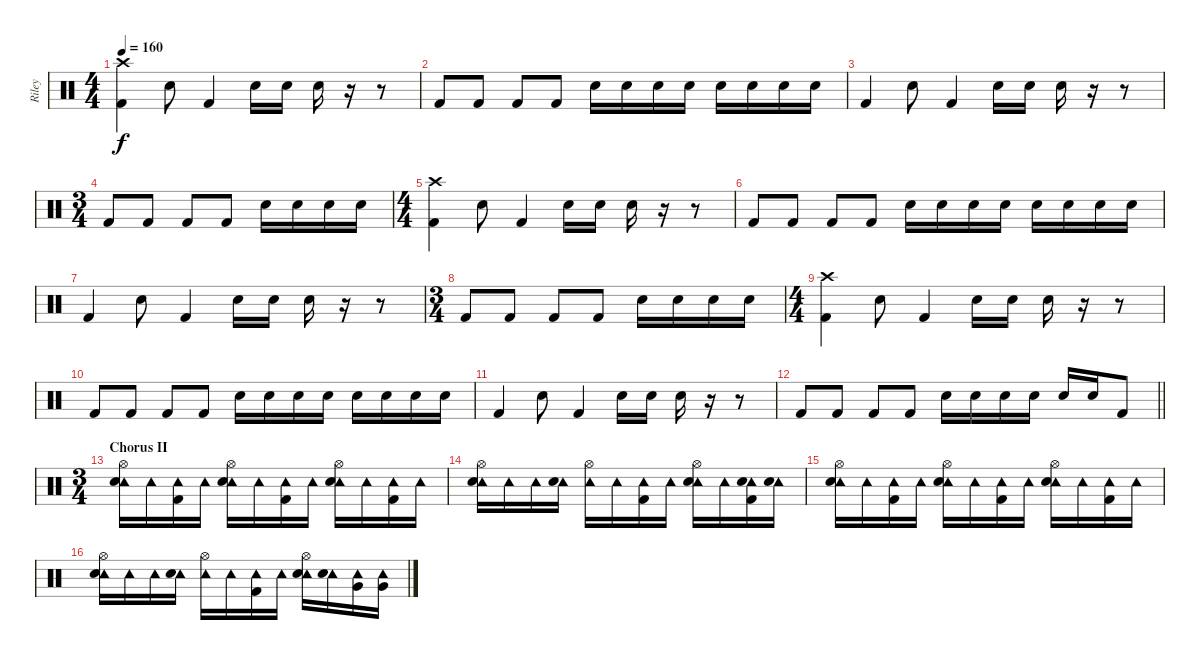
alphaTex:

\track ("Riley" "Riley") {instrument percussion}
\staff {score}
\articulation defaults
\ts (4 4)
\tempo 160
\clef neutral
\ks c
("Crash high (hit)" "Kick (hit) 2").4{dy f} "Electric Snare (hit)".8 "Kick (hit) 2".4 "Electric Snare (hit)".16 "Electric Snare (hit)".16 "Electric Snare (hit)".16 r.16 r.8 |
"Kick (hit) 2".8 "Kick (hit) 2".8 "Kick (hit) 2".8 "Kick (hit) 2".8 "Electric Snare (hit)".16 "Electric Snare (hit)".16 "Electric Snare (hit)".16 "Electric Snare (hit)".16 "Electric Snare (hit)".16 "Electric Snare (hit)".16 "Electric Snare (hit)".16 "Electric Snare (hit)".16 |
"Kick (hit) 2".4 "Electric Snare (hit)".8 "Kick (hit) 2".4 "Electric Snare (hit)".16 "Electric Snare (hit)".16 "Electric Snare (hit)".16 r.16 r.8 |
\ts (3 4)
"Kick (hit) 2".8 "Kick (hit) 2".8 "Kick (hit) 2".8 "Kick (hit) 2".8 "Electric Snare (hit)".16 "Electric Snare (hit)".16 "Electric Snare (hit)".16 "Electric Snare (hit)".16 |
\ts (4 4)
("Crash high (hit)" "Kick (hit) 2").4 "Electric Snare (hit)".8 "Kick (hit) 2".4 "Electric Snare (hit)".16 "Electric Snare (hit)".16 "Electric Snare (hit)".16 r.16 r.8 |
"Kick (hit) 2".8 "Kick (hit) 2".8 "Kick (hit) 2".8 "Kick (hit) 2".8 "Electric Snare (hit)".16 "Electric Snare (hit)".16 "Electric Snare (hit)".16 "Electric Snare (hit)".16 "Electric Snare (hit)".16 "Electric Snare (hit)".16 "Electric Snare (hit)".16 "Electric Snare (hit)".16 |
"Kick (hit) 2".4 "Electric Snare (hit)".8 "Kick (hit) 2".4 "Electric Snare (hit)".16 "Electric Snare (hit)".16 "Electric Snare (hit)".16 r.16 r.8 |
\ts (3 4)
"Kick (hit) 2".8 "Kick (hit) 2".8 "Kick (hit) 2".8 "Kick (hit) 2".8 "Electric Snare (hit)".16 "Electric Snare (hit)".16 "Electric Snare (hit)".16 "Electric Snare (hit)".16 |
\ts (4 4)
("Crash high (hit)" "Kick (hit) 2").4 "Electric Snare (hit)".8 "Kick (hit) 2".4 "Electric Snare (hit)".16 "Electric Snare (hit)".16 "Electric Snare (hit)".16 r.16 r.8 |
"Kick (hit) 2".8 "Kick (hit) 2".8 "Kick (hit) 2".8 "Kick (hit) 2".8 "Electric Snare (hit)".16 "Electric Snare (hit)".16 "Electric Snare (hit)".16 "Electric Snare (hit)".16 "Electric Snare (hit)".16 "Electric Snare (hit)".16 "Electric Snare (hit)".16 "Electric Snare (hit)".16 |
"Kick (hit) 2".4 "Electric Snare (hit)".8 "Kick (hit) 2".4 "Electric Snare (hit)".16 "Electric Snare (hit)".16 "Electric Snare (hit)".16 r.16 r.8 |
\barLineRight lightlight "Kick (hit) 2".8 "Kick (hit) 2".8 "Kick (hit) 2".8 "Kick (hit) 2".8 "Electric Snare (hit)".16 "Electric Snare (hit)".16 "Electric Snare (hit)".16 "Electric Snare (hit)".16 "Electric Snare (hit)".16 "Electric Snare (hit)".16 "Kick (hit) 2".8
|
\ts (3 4)
\section ("" "Chorus II")
("Tambourine (hit)" "Hi-Hat (open)" "Electric Snare (hit)").16 "Tambourine (hit)".16 ("Tambourine (hit)" "Kick (hit) 2").16 "Tambourine (hit)".16 ("Tambourine (hit)" "Hi-Hat (open)" "Electric Snare (hit)").16 "Tambourine (hit)".16 ("Tambourine (hit)" "Kick (hit) 2").16 "Tambourine (hit)".16 ("Tambourine (hit)" "Hi-Hat (open)" "Electric Snare (hit)").16 "Tambourine (hit)".16 ("Tambourine (hit)" "Kick (hit) 2").16 "Tambourine (hit)".16 |
("Tambourine (hit)" "Hi-Hat (open)" "Electric Snare (hit)").16 "Tambourine (hit)".16 "Tambourine (hit)".16 ("Tambourine (hit)" "Electric Snare (hit)").16 ("Tambourine (hit)" "Hi-Hat (open)").16 "Tambourine (hit)".16 ("Tambourine (hit)" "Kick (hit) 2").16 "Tambourine (hit)".16 ("Tambourine (hit)" "Hi-Hat (open)" "Electric Snare (hit)").16 "Tambourine (hit)".16 ("Tambourine (hit)" "Electric Snare (hit)" "Kick (hit) 2").16 ("Tambourine (hit)" "Electric Snare (hit)").16 |
("Tambourine (hit)" "Hi-Hat (open)" "Electric Snare (hit)").16 "Tambourine (hit)".16 ("Tambourine (hit)" "Kick (hit) 2").16 "Tambourine (hit)".16 ("Tambourine (hit)" "Hi-Hat (open)" "Electric Snare (hit)").16 "Tambourine (hit)".16 ("Tambourine (hit)" "Kick (hit) 2").16 "Tambourine (hit)".16 ("Tambourine (hit)" "Hi-Hat (open)" "Electric Snare (hit)").16 "Tambourine (hit)".16 ("Tambourine (hit)" "Kick (hit) 2").16 "Tambourine (hit)".16 |
("Tambourine (hit)" "Hi-Hat (open)" "Electric Snare (hit)").16 "Tambourine (hit)".16 "Tambourine (hit)".16 ("Tambourine (hit)" "Electric Snare (hit)").16 ("Tambourine (hit)" "Hi-Hat (open)").16 "Tambourine (hit)".16 ("Tambourine (hit)" "Kick (hit) 2").16 "Tambourine (hit)".16 ("Tambourine (hit)" "Hi-Hat (open)" "Electric Snare (hit)").16 ("Tambourine (hit)" "Electric Snare (hit)").16 ("Tambourine (hit)" "Very Low Tom (hit)").16 ("Tambourine (hit)" "Very Low Tom (hit)").16
